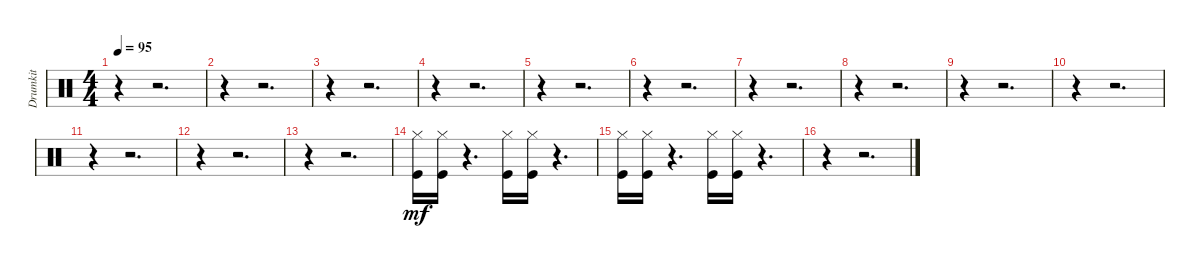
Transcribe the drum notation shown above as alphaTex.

\track ("Drumkit" "Drumkit") {instrument percussion}
\staff {score}
\articulation defaults
\ts (4 4)
\tempo 95
\clef neutral
\ks c
r.4{dy mf} r.2{d} |
r.4 r.2{d} |
r.4 r.2{d} |
r.4 r.2{d} |
r.4 r.2{d} |
r.4 r.2{d} |
r.4 r.2{d} |
r.4 r.2{d} |
r.4 r.2{d} |
r.4 r.2{d} |
r.4 r.2{d} |
r.4 r.2{d} |
r.4 r.2{d} |
("Kick (hit)" "Hi-Hat (closed)").16 ("Kick (hit)" "Hi-Hat (closed)").16 r.4{d} ("Kick (hit)" "Hi-Hat (closed)").16 ("Kick (hit)" "Hi-Hat (closed)").16 r.4{d} |
("Kick (hit)" "Hi-Hat (closed)").16 ("Kick (hit)" "Hi-Hat (closed)").16 r.4{d} ("Kick (hit)" "Hi-Hat (closed)").16 ("Kick (hit)" "Hi-Hat (closed)").16 r.4{d} |
r.4 r.2{d}
